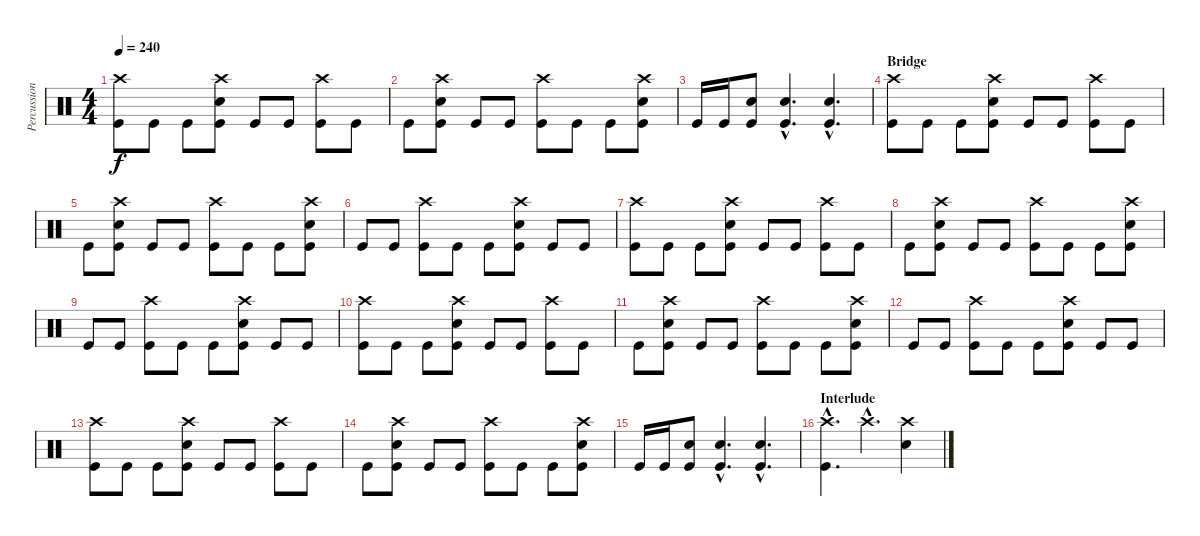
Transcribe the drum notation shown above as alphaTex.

\track ("Percussion" "Percussion") {instrument percussion}
\staff {score}
\articulation defaults
\ts (4 4)
\tempo 240
\clef neutral
\ks c
("Crash high (hit)" "Kick (hit)").8{dy f} "Kick (hit)".8 "Kick (hit)".8 ("Electric Snare (hit)" "Crash high (hit)" "Kick (hit)").8 "Kick (hit)".8 "Kick (hit)".8 ("Crash high (hit)" "Kick (hit)").8 "Kick (hit)".8 |
"Kick (hit)".8 ("Electric Snare (hit)" "Crash high (hit)" "Kick (hit)").8 "Kick (hit)".8 "Kick (hit)".8 ("Crash high (hit)" "Kick (hit)").8 "Kick (hit)".8 "Kick (hit)".8 ("Electric Snare (hit)" "Crash high (hit)" "Kick (hit)").8 |
"Kick (hit)".16 "Kick (hit)".16 ("Electric Snare (hit)" "Kick (hit)").8 ("Electric Snare (hit)"{hac} "Kick (hit)"{hac}).4{d} ("Electric Snare (hit)"{hac} "Kick (hit)"{hac}).4{d} |
\section ("" "Bridge")
("Crash high (hit)" "Kick (hit)").8 "Kick (hit)".8 "Kick (hit)".8 ("Electric Snare (hit)" "Crash high (hit)" "Kick (hit)").8 "Kick (hit)".8 "Kick (hit)".8 ("Crash high (hit)" "Kick (hit)").8 "Kick (hit)".8 |
"Kick (hit)".8 ("Electric Snare (hit)" "Crash high (hit)" "Kick (hit)").8 "Kick (hit)".8 "Kick (hit)".8 ("Crash high (hit)" "Kick (hit)").8 "Kick (hit)".8 "Kick (hit)".8 ("Electric Snare (hit)" "Crash high (hit)" "Kick (hit)").8 |
"Kick (hit)".8 "Kick (hit)".8 ("Crash high (hit)" "Kick (hit)").8 "Kick (hit)".8 "Kick (hit)".8 ("Electric Snare (hit)" "Crash high (hit)" "Kick (hit)").8 "Kick (hit)".8 "Kick (hit)".8 |
("Crash high (hit)" "Kick (hit)").8 "Kick (hit)".8 "Kick (hit)".8 ("Electric Snare (hit)" "Crash high (hit)" "Kick (hit)").8 "Kick (hit)".8 "Kick (hit)".8 ("Crash high (hit)" "Kick (hit)").8 "Kick (hit)".8 |
"Kick (hit)".8 ("Electric Snare (hit)" "Crash high (hit)" "Kick (hit)").8 "Kick (hit)".8 "Kick (hit)".8 ("Crash high (hit)" "Kick (hit)").8 "Kick (hit)".8 "Kick (hit)".8 ("Electric Snare (hit)" "Crash high (hit)" "Kick (hit)").8 |
"Kick (hit)".8 "Kick (hit)".8 ("Crash high (hit)" "Kick (hit)").8 "Kick (hit)".8 "Kick (hit)".8 ("Electric Snare (hit)" "Crash high (hit)" "Kick (hit)").8 "Kick (hit)".8 "Kick (hit)".8 |
("Crash high (hit)" "Kick (hit)").8 "Kick (hit)".8 "Kick (hit)".8 ("Electric Snare (hit)" "Crash high (hit)" "Kick (hit)").8 "Kick (hit)".8 "Kick (hit)".8 ("Crash high (hit)" "Kick (hit)").8 "Kick (hit)".8 |
"Kick (hit)".8 ("Electric Snare (hit)" "Crash high (hit)" "Kick (hit)").8 "Kick (hit)".8 "Kick (hit)".8 ("Crash high (hit)" "Kick (hit)").8 "Kick (hit)".8 "Kick (hit)".8 ("Electric Snare (hit)" "Crash high (hit)" "Kick (hit)").8 |
"Kick (hit)".8 "Kick (hit)".8 ("Crash high (hit)" "Kick (hit)").8 "Kick (hit)".8 "Kick (hit)".8 ("Electric Snare (hit)" "Crash high (hit)" "Kick (hit)").8 "Kick (hit)".8 "Kick (hit)".8 |
("Crash high (hit)" "Kick (hit)").8 "Kick (hit)".8 "Kick (hit)".8 ("Electric Snare (hit)" "Crash high (hit)" "Kick (hit)").8 "Kick (hit)".8 "Kick (hit)".8 ("Crash high (hit)" "Kick (hit)").8 "Kick (hit)".8 |
"Kick (hit)".8 ("Electric Snare (hit)" "Crash high (hit)" "Kick (hit)").8 "Kick (hit)".8 "Kick (hit)".8 ("Crash high (hit)" "Kick (hit)").8 "Kick (hit)".8 "Kick (hit)".8 ("Electric Snare (hit)" "Crash high (hit)" "Kick (hit)").8 |
"Kick (hit)".16 "Kick (hit)".16 ("Electric Snare (hit)" "Kick (hit)").8 ("Electric Snare (hit)"{hac} "Kick (hit)"{hac}).4{d} ("Electric Snare (hit)"{hac} "Kick (hit)"{hac}).4{d} |
\section ("" "Interlude")
("Crash high (hit)"{hac} "Kick (hit)"{hac}).4{d} "Crash high (hit)"{hac}.4{d} ("Crash high (hit)" "Electric Snare (hit)").4
